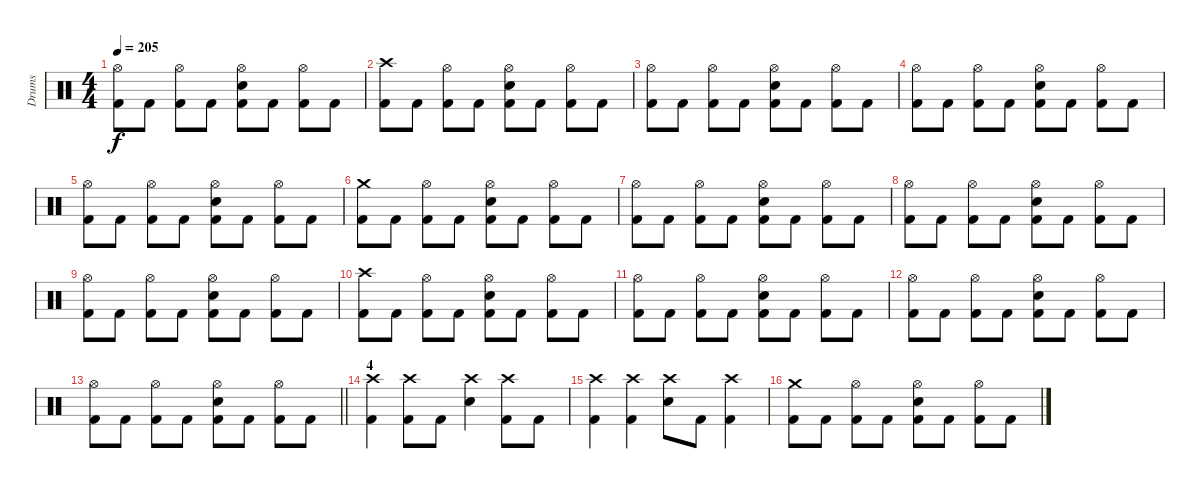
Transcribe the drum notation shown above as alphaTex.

\track ("Drums" "Drums") {instrument percussion}
\staff {score}
\articulation defaults
\ts (4 4)
\tempo 205
\clef neutral
\ks c
("Hi-Hat (open)" "Kick (hit) 2").8{dy f} "Kick (hit) 2".8 ("Hi-Hat (open)" "Kick (hit) 2").8 "Kick (hit) 2".8 ("Hi-Hat (open)" "Electric Snare (hit)" "Kick (hit) 2").8 "Kick (hit) 2".8 ("Hi-Hat (open)" "Kick (hit) 2").8 "Kick (hit) 2".8 |
("Crash high (hit)" "Kick (hit) 2").8 "Kick (hit) 2".8 ("Hi-Hat (open)" "Kick (hit) 2").8 "Kick (hit) 2".8 ("Hi-Hat (open)" "Electric Snare (hit)" "Kick (hit) 2").8 "Kick (hit) 2".8 ("Hi-Hat (open)" "Kick (hit) 2").8 "Kick (hit) 2".8 |
("Hi-Hat (open)" "Kick (hit) 2").8 "Kick (hit) 2".8 ("Hi-Hat (open)" "Kick (hit) 2").8 "Kick (hit) 2".8 ("Hi-Hat (open)" "Electric Snare (hit)" "Kick (hit) 2").8 "Kick (hit) 2".8 ("Hi-Hat (open)" "Kick (hit) 2").8 "Kick (hit) 2".8 |
("Hi-Hat (open)" "Kick (hit) 2").8 "Kick (hit) 2".8 ("Hi-Hat (open)" "Kick (hit) 2").8 "Kick (hit) 2".8 ("Hi-Hat (open)" "Electric Snare (hit)" "Kick (hit) 2").8 "Kick (hit) 2".8 ("Hi-Hat (open)" "Kick (hit) 2").8 "Kick (hit) 2".8 |
("Hi-Hat (open)" "Kick (hit) 2").8 "Kick (hit) 2".8 ("Hi-Hat (open)" "Kick (hit) 2").8 "Kick (hit) 2".8 ("Hi-Hat (open)" "Electric Snare (hit)" "Kick (hit) 2").8 "Kick (hit) 2".8 ("Hi-Hat (open)" "Kick (hit) 2").8 "Kick (hit) 2".8 |
("Crash medium (hit)" "Kick (hit) 2").8 "Kick (hit) 2".8 ("Hi-Hat (open)" "Kick (hit) 2").8 "Kick (hit) 2".8 ("Hi-Hat (open)" "Electric Snare (hit)" "Kick (hit) 2").8 "Kick (hit) 2".8 ("Hi-Hat (open)" "Kick (hit) 2").8 "Kick (hit) 2".8 |
("Hi-Hat (open)" "Kick (hit) 2").8 "Kick (hit) 2".8 ("Hi-Hat (open)" "Kick (hit) 2").8 "Kick (hit) 2".8 ("Hi-Hat (open)" "Electric Snare (hit)" "Kick (hit) 2").8 "Kick (hit) 2".8 ("Hi-Hat (open)" "Kick (hit) 2").8 "Kick (hit) 2".8 |
("Hi-Hat (open)" "Kick (hit) 2").8 "Kick (hit) 2".8 ("Hi-Hat (open)" "Kick (hit) 2").8 "Kick (hit) 2".8 ("Hi-Hat (open)" "Electric Snare (hit)" "Kick (hit) 2").8 "Kick (hit) 2".8 ("Hi-Hat (open)" "Kick (hit) 2").8 "Kick (hit) 2".8 |
("Hi-Hat (open)" "Kick (hit) 2").8 "Kick (hit) 2".8 ("Hi-Hat (open)" "Kick (hit) 2").8 "Kick (hit) 2".8 ("Hi-Hat (open)" "Electric Snare (hit)" "Kick (hit) 2").8 "Kick (hit) 2".8 ("Hi-Hat (open)" "Kick (hit) 2").8 "Kick (hit) 2".8 |
("Crash high (hit)" "Kick (hit) 2").8 "Kick (hit) 2".8 ("Hi-Hat (open)" "Kick (hit) 2").8 "Kick (hit) 2".8 ("Hi-Hat (open)" "Electric Snare (hit)" "Kick (hit) 2").8 "Kick (hit) 2".8 ("Hi-Hat (open)" "Kick (hit) 2").8 "Kick (hit) 2".8 |
("Hi-Hat (open)" "Kick (hit) 2").8 "Kick (hit) 2".8 ("Hi-Hat (open)" "Kick (hit) 2").8 "Kick (hit) 2".8 ("Hi-Hat (open)" "Electric Snare (hit)" "Kick (hit) 2").8 "Kick (hit) 2".8 ("Hi-Hat (open)" "Kick (hit) 2").8 "Kick (hit) 2".8 |
("Hi-Hat (open)" "Kick (hit) 2").8 "Kick (hit) 2".8 ("Hi-Hat (open)" "Kick (hit) 2").8 "Kick (hit) 2".8 ("Hi-Hat (open)" "Electric Snare (hit)" "Kick (hit) 2").8 "Kick (hit) 2".8 ("Hi-Hat (open)" "Kick (hit) 2").8 "Kick (hit) 2".8 |
\barLineRight lightlight
("Hi-Hat (open)" "Kick (hit) 2").8 "Kick (hit) 2".8 ("Hi-Hat (open)" "Kick (hit) 2").8 "Kick (hit) 2".8 ("Hi-Hat (open)" "Electric Snare (hit)" "Kick (hit) 2").8 "Kick (hit) 2".8 ("Hi-Hat (open)" "Kick (hit) 2").8 "Kick (hit) 2".8 |
\section ("" "4")
("Crash high (hit)" "Kick (hit) 2").4 ("Crash high (hit)" "Kick (hit) 2").8 "Kick (hit) 2".8 ("Crash high (hit)" "Electric Snare (hit)").4 ("Crash high (hit)" "Kick (hit) 2").8 "Kick (hit) 2".8 |
("Crash high (hit)" "Kick (hit) 2").4 ("Crash high (hit)" "Kick (hit) 2").4 ("Crash high (hit)" "Electric Snare (hit)").8 "Kick (hit) 2".8 ("Crash high (hit)" "Kick (hit) 2").4 |
("Crash medium (hit)" "Kick (hit) 2").8 "Kick (hit) 2".8 ("Hi-Hat (open)" "Kick (hit) 2").8 "Kick (hit) 2".8 ("Hi-Hat (open)" "Electric Snare (hit)" "Kick (hit) 2").8 "Kick (hit) 2".8 ("Hi-Hat (open)" "Kick (hit) 2").8 "Kick (hit) 2".8
